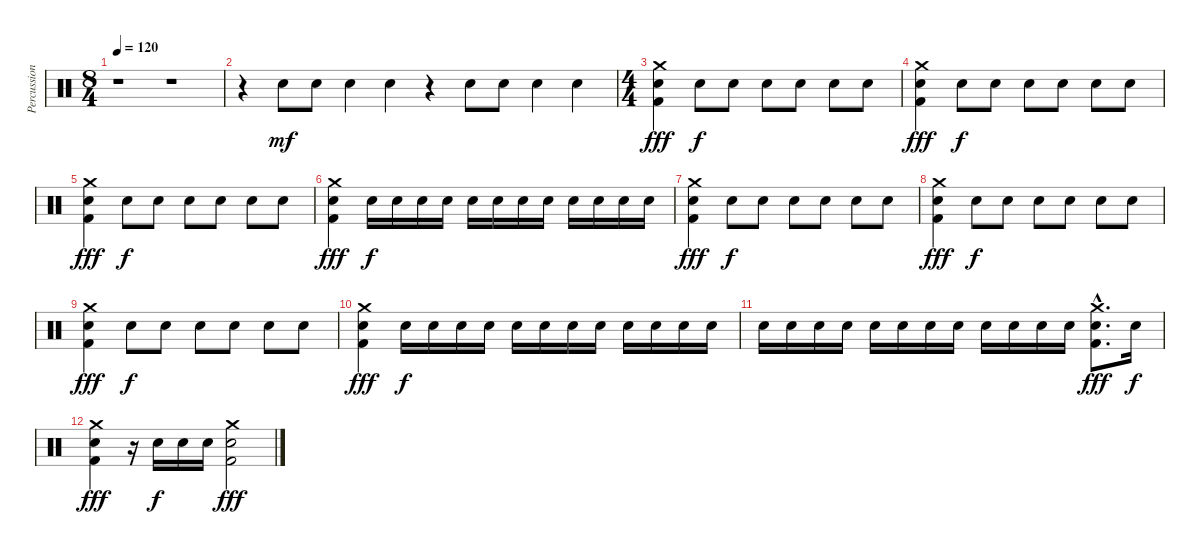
\track ("Percussion" "Percussion") {instrument percussion}
\staff {score}
\articulation defaults
\ts (8 4)
\tempo 120
\clef neutral
\ks c
r.1{dy mf} r.1 |
r.4 "Snare (hit) 2".8 "Snare (hit) 2".8 "Snare (hit) 2".4 "Snare (hit) 2".4 r.4 "Snare (hit) 2".8 "Snare (hit) 2".8 "Snare (hit) 2".4 "Snare (hit) 2".4 |
\ts (4 4)
("Kick (hit) 2" "Snare (hit) 2" "Crash medium (hit)").4{dy fff} "Snare (hit) 2".8{dy f} "Snare (hit) 2".8 "Snare (hit) 2".8 "Snare (hit) 2".8 "Snare (hit) 2".8 "Snare (hit) 2".8 |
("Kick (hit) 2" "Snare (hit) 2" "Crash medium (hit)").4{dy fff} "Snare (hit) 2".8{dy f} "Snare (hit) 2".8 "Snare (hit) 2".8 "Snare (hit) 2".8 "Snare (hit) 2".8 "Snare (hit) 2".8 |
("Kick (hit) 2" "Snare (hit) 2" "Crash medium (hit)").4{dy fff} "Snare (hit) 2".8{dy f} "Snare (hit) 2".8 "Snare (hit) 2".8 "Snare (hit) 2".8 "Snare (hit) 2".8 "Snare (hit) 2".8 |
("Kick (hit) 2" "Snare (hit) 2" "Crash medium (hit)").4{dy fff} "Snare (hit) 2".16{dy f} "Snare (hit) 2".16 "Snare (hit) 2".16 "Snare (hit) 2".16 "Snare (hit) 2".16 "Snare (hit) 2".16 "Snare (hit) 2".16 "Snare (hit) 2".16 "Snare (hit) 2".16 "Snare (hit) 2".16 "Snare (hit) 2".16 "Snare (hit) 2".16 |
("Kick (hit) 2" "Snare (hit) 2" "Crash medium (hit)").4{dy fff} "Snare (hit) 2".8{dy f} "Snare (hit) 2".8 "Snare (hit) 2".8 "Snare (hit) 2".8 "Snare (hit) 2".8 "Snare (hit) 2".8 |
("Kick (hit) 2" "Snare (hit) 2" "Crash medium (hit)").4{dy fff} "Snare (hit) 2".8{dy f} "Snare (hit) 2".8 "Snare (hit) 2".8 "Snare (hit) 2".8 "Snare (hit) 2".8 "Snare (hit) 2".8 |
("Kick (hit) 2" "Snare (hit) 2" "Crash medium (hit)").4{dy fff} "Snare (hit) 2".8{dy f} "Snare (hit) 2".8 "Snare (hit) 2".8 "Snare (hit) 2".8 "Snare (hit) 2".8 "Snare (hit) 2".8 |
("Kick (hit) 2" "Snare (hit) 2" "Crash medium (hit)").4{dy fff} "Snare (hit) 2".16{dy f} "Snare (hit) 2".16 "Snare (hit) 2".16 "Snare (hit) 2".16 "Snare (hit) 2".16 "Snare (hit) 2".16 "Snare (hit) 2".16 "Snare (hit) 2".16 "Snare (hit) 2".16 "Snare (hit) 2".16 "Snare (hit) 2".16 "Snare (hit) 2".16 |
"Snare (hit) 2".16 "Snare (hit) 2".16 "Snare (hit) 2".16 "Snare (hit) 2".16 "Snare (hit) 2".16 "Snare (hit) 2".16 "Snare (hit) 2".16 "Snare (hit) 2".16 "Snare (hit) 2".16 "Snare (hit) 2".16 "Snare (hit) 2".16 "Snare (hit) 2".16 ("Kick (hit) 2" "Snare (hit) 2"{hac} "Crash medium (hit)").8{d dy fff} "Snare (hit) 2".16{dy f} |
("Kick (hit) 2" "Snare (hit) 2" "Crash medium (hit)").4{dy fff} r.16 "Snare (hit) 2".16{dy f} "Snare (hit) 2".16 "Snare (hit) 2".16 ("Kick (hit) 2" "Snare (hit) 2" "Crash medium (hit)").2{dy fff}
